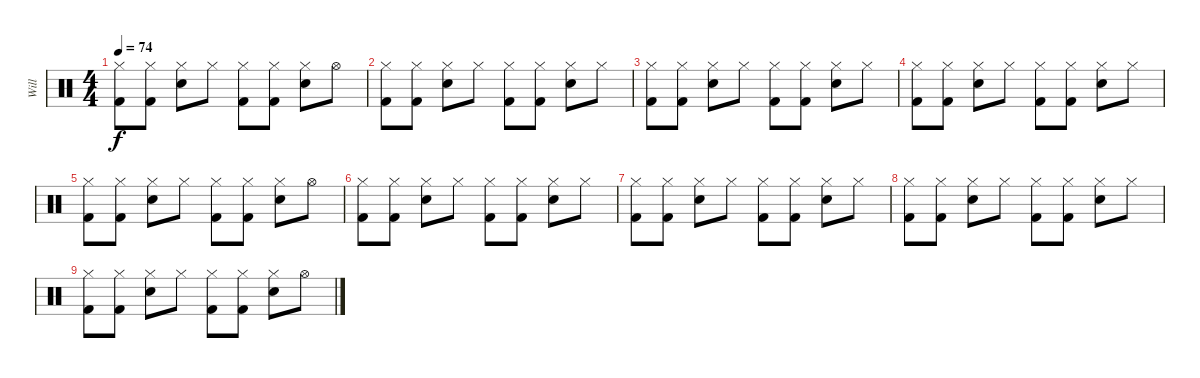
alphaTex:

\track ("Will" "Will") {instrument percussion}
\staff {score}
\articulation defaults
\ts (4 4)
\tempo 74
\clef neutral
\ks c
("Hi-Hat (closed)" "Kick (hit) 2").8{dy f} ("Hi-Hat (closed)" "Kick (hit) 2").8 ("Hi-Hat (closed)" "Electric Snare (hit)").8 "Hi-Hat (closed)".8 ("Hi-Hat (closed)" "Kick (hit) 2").8 ("Hi-Hat (closed)" "Kick (hit) 2").8 ("Hi-Hat (closed)" "Electric Snare (hit)").8 "Hi-Hat (open)".8 |
("Hi-Hat (closed)" "Kick (hit) 2").8 ("Hi-Hat (closed)" "Kick (hit) 2").8 ("Hi-Hat (closed)" "Electric Snare (hit)").8 "Hi-Hat (closed)".8 ("Hi-Hat (closed)" "Kick (hit) 2").8 ("Hi-Hat (closed)" "Kick (hit) 2").8 ("Hi-Hat (closed)" "Electric Snare (hit)").8 "Hi-Hat (closed)".8 |
("Hi-Hat (closed)" "Kick (hit) 2").8 ("Hi-Hat (closed)" "Kick (hit) 2").8 ("Hi-Hat (closed)" "Electric Snare (hit)").8 "Hi-Hat (closed)".8 ("Hi-Hat (closed)" "Kick (hit) 2").8 ("Hi-Hat (closed)" "Kick (hit) 2").8 ("Hi-Hat (closed)" "Electric Snare (hit)").8 "Hi-Hat (closed)".8 |
("Hi-Hat (closed)" "Kick (hit) 2").8 ("Hi-Hat (closed)" "Kick (hit) 2").8 ("Hi-Hat (closed)" "Electric Snare (hit)").8 "Hi-Hat (closed)".8 ("Hi-Hat (closed)" "Kick (hit) 2").8 ("Hi-Hat (closed)" "Kick (hit) 2").8 ("Hi-Hat (closed)" "Electric Snare (hit)").8 "Hi-Hat (closed)".8 |
("Hi-Hat (closed)" "Kick (hit) 2").8 ("Hi-Hat (closed)" "Kick (hit) 2").8 ("Hi-Hat (closed)" "Electric Snare (hit)").8 "Hi-Hat (closed)".8 ("Hi-Hat (closed)" "Kick (hit) 2").8 ("Hi-Hat (closed)" "Kick (hit) 2").8 ("Hi-Hat (closed)" "Electric Snare (hit)").8 "Hi-Hat (open)".8 |
("Hi-Hat (closed)" "Kick (hit) 2").8 ("Hi-Hat (closed)" "Kick (hit) 2").8 ("Hi-Hat (closed)" "Electric Snare (hit)").8 "Hi-Hat (closed)".8 ("Hi-Hat (closed)" "Kick (hit) 2").8 ("Hi-Hat (closed)" "Kick (hit) 2").8 ("Hi-Hat (closed)" "Electric Snare (hit)").8 "Hi-Hat (closed)".8 |
("Hi-Hat (closed)" "Kick (hit) 2").8 ("Hi-Hat (closed)" "Kick (hit) 2").8 ("Hi-Hat (closed)" "Electric Snare (hit)").8 "Hi-Hat (closed)".8 ("Hi-Hat (closed)" "Kick (hit) 2").8 ("Hi-Hat (closed)" "Kick (hit) 2").8 ("Hi-Hat (closed)" "Electric Snare (hit)").8 "Hi-Hat (closed)".8 |
("Hi-Hat (closed)" "Kick (hit) 2").8 ("Hi-Hat (closed)" "Kick (hit) 2").8 ("Hi-Hat (closed)" "Electric Snare (hit)").8 "Hi-Hat (closed)".8 ("Hi-Hat (closed)" "Kick (hit) 2").8 ("Hi-Hat (closed)" "Kick (hit) 2").8 ("Hi-Hat (closed)" "Electric Snare (hit)").8 "Hi-Hat (closed)".8 |
("Hi-Hat (closed)" "Kick (hit) 2").8 ("Hi-Hat (closed)" "Kick (hit) 2").8 ("Hi-Hat (closed)" "Electric Snare (hit)").8 "Hi-Hat (closed)".8 ("Hi-Hat (closed)" "Kick (hit) 2").8 ("Hi-Hat (closed)" "Kick (hit) 2").8 ("Hi-Hat (closed)" "Electric Snare (hit)").8 "Hi-Hat (open)".8
